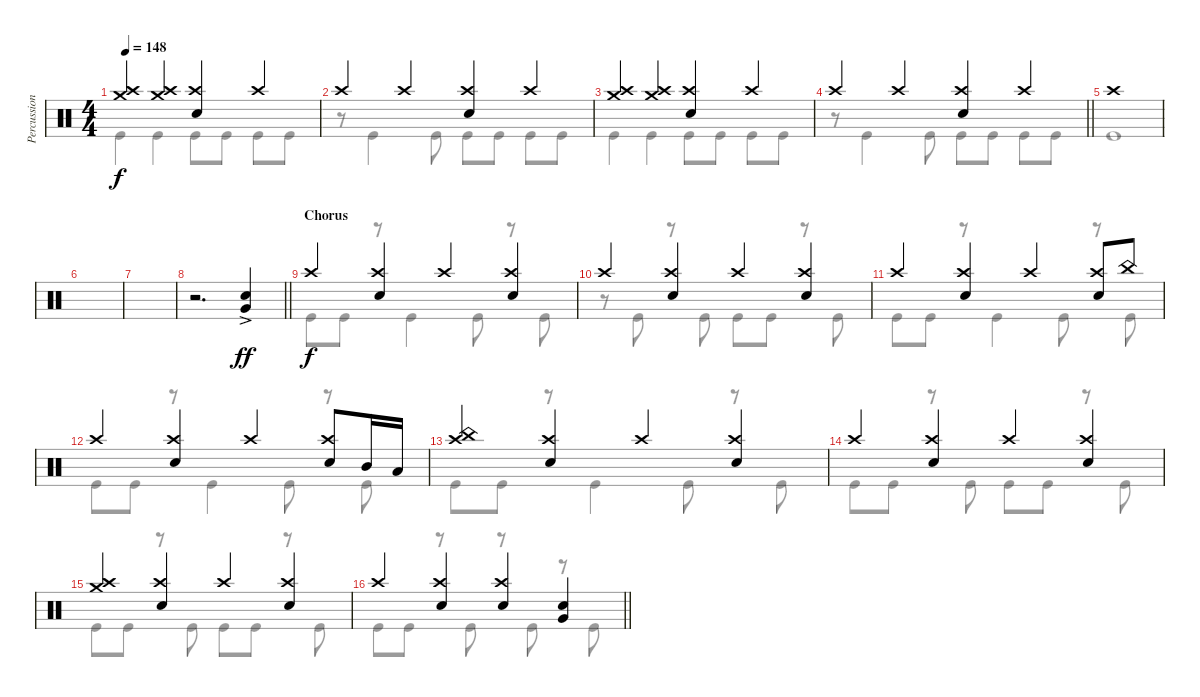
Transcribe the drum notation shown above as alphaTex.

\track ("Percussion" "Percussion") {instrument percussion}
\staff {score}
\articulation defaults
\voice
\ts (4 4)
\tempo 148
\clef neutral
\ks c
("Crash medium (hit)" "Crash high (hit)").4{dy f} ("Crash medium (hit)" "Crash high (hit)").4 ("Crash high (hit)" "Electric Snare (hit)").4 "Crash high (hit)".4 |
"Crash high (hit)".4 "Crash high (hit)".4 ("Crash high (hit)" "Electric Snare (hit)").4 "Crash high (hit)".4 |
("Crash medium (hit)" "Crash high (hit)").4 ("Crash medium (hit)" "Crash high (hit)").4 ("Crash high (hit)" "Electric Snare (hit)").4 "Crash high (hit)".4 |
\barLineRight lightlight "Crash high (hit)".4 "Crash high (hit)".4
("Crash high (hit)" "Electric Snare (hit)").4 "Crash high (hit)".4 |
\section ("" "")
"Crash high (hit)".1 |
|
|
\barLineRight lightlight
r.2{d} ("Very Low Tom (hit)"{ac} "Electric Snare (hit)"{ac}).4{dy ff} |
\section ("" "Chorus")
"Crash high (hit)".4{dy f} ("Crash high (hit)" "Electric Snare (hit)").4 "Crash high (hit)".4 ("Crash high (hit)" "Electric Snare (hit)").4 |
"Crash high (hit)".4 ("Crash high (hit)" "Electric Snare (hit)").4 "Crash high (hit)".4 ("Crash high (hit)" "Electric Snare (hit)").4 |
"Crash high (hit)".4 ("Crash high (hit)" "Electric Snare (hit)").4 "Crash high (hit)".4 ("Crash high (hit)" "Electric Snare (hit)").8 "China (hit)".8 |
"Crash high (hit)".4 ("Crash high (hit)" "Electric Snare (hit)").4 "Crash high (hit)".4 ("Crash high (hit)" "Electric Snare (hit)").8 "Mid Tom (hit)".16 "Low Tom (hit)".16 |
("China (hit)" "Crash high (hit)").4 ("Crash high (hit)" "Electric Snare (hit)").4 "Crash high (hit)".4 ("Crash high (hit)" "Electric Snare (hit)").4 |
"Crash high (hit)".4 ("Crash high (hit)" "Electric Snare (hit)").4 "Crash high (hit)".4 ("Crash high (hit)" "Electric Snare (hit)").4 |
("Crash medium (hit)" "Crash high (hit)").4 ("Crash high (hit)" "Electric Snare (hit)").4 "Crash high (hit)".4 ("Crash high (hit)" "Electric Snare (hit)").4 |
\barLineRight lightlight "Crash high (hit)".4
("Crash high (hit)" "Electric Snare (hit)").4 ("Crash high (hit)" "Electric Snare (hit)").4 ("Very Low Tom (hit)" "Electric Snare (hit)").4
\voice
\clef neutral
\ottava regular
\simile none
\ks c "Kick (hit)".4{dy f} "Kick (hit)".4 "Kick (hit)".8 "Kick (hit)".8 "Kick (hit)".8 "Kick (hit)".8
|
r.8 "Kick (hit)".4 "Kick (hit)".8 "Kick (hit)".8 "Kick (hit)".8 "Kick (hit)".8 "Kick (hit)".8 |
"Kick (hit)".4 "Kick (hit)".4 "Kick (hit)".8 "Kick (hit)".8 "Kick (hit)".8 "Kick (hit)".8 |
\barLineRight lightlight
r.8 "Kick (hit)".4 "Kick (hit)".8 "Kick (hit)".8 "Kick (hit)".8 "Kick (hit)".8 "Kick (hit)".8 |
"Kick (hit)".1 |
|
|
\barLineRight lightlight
|
"Kick (hit)".8 "Kick (hit)".8 r.8 "Kick (hit)".4 "Kick (hit)".8 r.8 "Kick (hit)".8 |
r.8 "Kick (hit)".8 r.8 "Kick (hit)".8 "Kick (hit)".8 "Kick (hit)".8 r.8 "Kick (hit)".8 |
"Kick (hit)".8 "Kick (hit)".8 r.8 "Kick (hit)".4 "Kick (hit)".8 r.8 "Kick (hit)".8 |
"Kick (hit)".8 "Kick (hit)".8 r.8 "Kick (hit)".4 "Kick (hit)".8 r.8 "Kick (hit)".8 |
"Kick (hit)".8 "Kick (hit)".8 r.8 "Kick (hit)".4 "Kick (hit)".8 r.8 "Kick (hit)".8 |
"Kick (hit)".8 "Kick (hit)".8 r.8 "Kick (hit)".8 "Kick (hit)".8 "Kick (hit)".8 r.8 "Kick (hit)".8 |
"Kick (hit)".8 "Kick (hit)".8 r.8 "Kick (hit)".8 "Kick (hit)".8 "Kick (hit)".8 r.8 "Kick (hit)".8 |
\barLineRight lightlight "Kick (hit)".8 "Kick (hit)".8
r.8 "Kick (hit)".8 r.8 "Kick (hit)".8 r.8 "Kick (hit)".8
